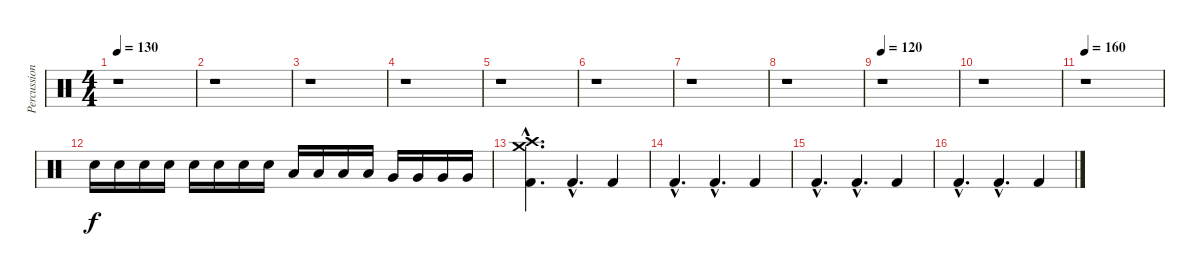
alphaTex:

\track ("Percussion" "Percussion") {instrument percussion}
\staff {score}
\articulation defaults
\ts (4 4)
\tempo 130
\clef neutral
\ks c
r.1{dy f} |
r.1 |
r.1 |
r.1 |
r.1 |
r.1 |
r.1 |
r.1 |
\tempo 120
r.1 |
r.1 |
\tempo 160
r.1 |
"Electric Snare (hit)".16 "Electric Snare (hit)".16 "Electric Snare (hit)".16 "Electric Snare (hit)".16 "Electric Snare (hit)".16 "Electric Snare (hit)".16 "Electric Snare (hit)".16 "Electric Snare (hit)".16 "Low Tom (hit)".16 "Low Tom (hit)".16 "Low Tom (hit)".16 "Low Tom (hit)".16 "Very Low Tom (hit)".16 "Very Low Tom (hit)".16 "Very Low Tom (hit)".16 "Very Low Tom (hit)".16 |
("Kick (hit) 2"{hac} "Crash high (hit)"{hac} "Crash medium (hit)"{hac}).4{d} "Kick (hit) 2"{hac}.4{d} "Kick (hit) 2".4 |
"Kick (hit) 2"{hac}.4{d} "Kick (hit) 2"{hac}.4{d} "Kick (hit) 2".4 |
"Kick (hit) 2"{hac}.4{d} "Kick (hit) 2"{hac}.4{d} "Kick (hit) 2".4 |
"Kick (hit) 2"{hac}.4{d} "Kick (hit) 2"{hac}.4{d} "Kick (hit) 2".4
